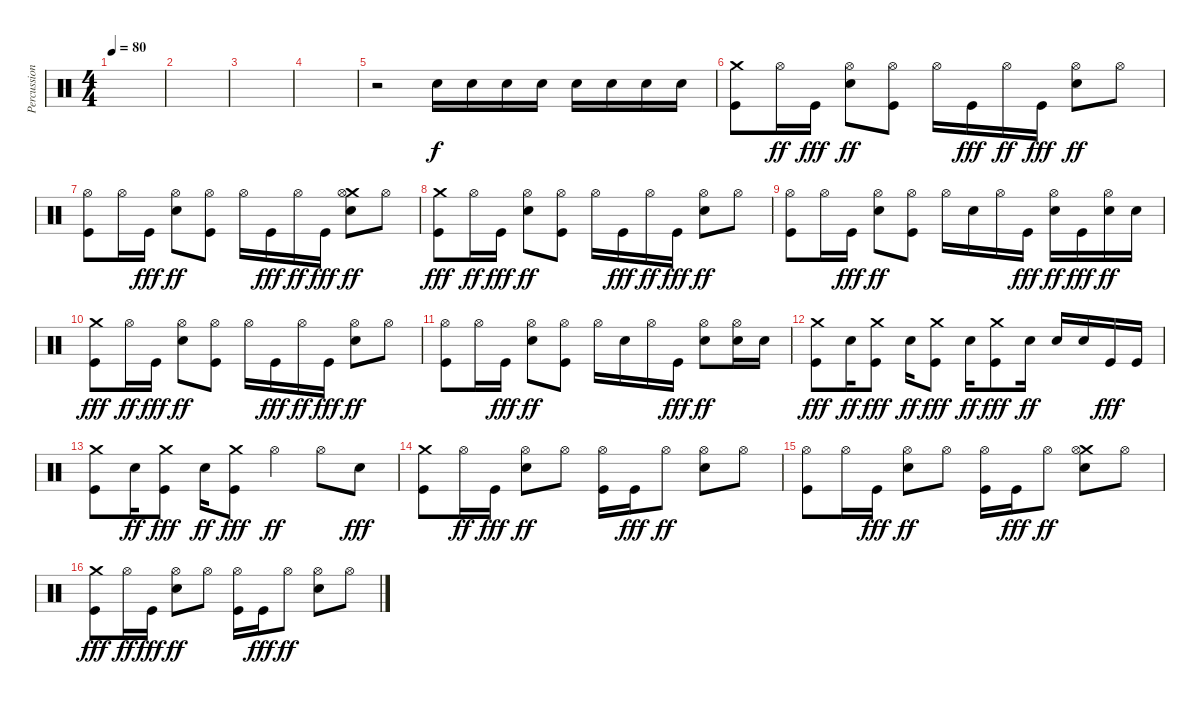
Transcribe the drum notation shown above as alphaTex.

\track ("Percussion" "Percussion") {instrument percussion}
\staff {score}
\articulation defaults
\ts (4 4)
\tempo 80
\clef neutral
\ks c
|
|
|
|
r.2 "Snare (hit) 2".16 "Snare (hit) 2".16 "Snare (hit) 2".16 "Snare (hit) 2".16 "Snare (hit) 2".16 "Snare (hit) 2".16 "Snare (hit) 2".16 "Snare (hit) 2".16 |
("Kick (hit)" "Crash medium (hit)").8 "Hi-Hat (open)".16{dy ff} "Kick (hit)".16{dy fff} ("Snare (hit) 2" "Hi-Hat (open)").8{dy ff} ("Kick (hit)" "Hi-Hat (open)").8 "Hi-Hat (open)".16 "Kick (hit)".16{dy fff} "Hi-Hat (open)".16{dy ff} "Kick (hit)".16{dy fff} ("Snare (hit) 2" "Hi-Hat (open)").8{dy ff} "Hi-Hat (open)".8 |
("Kick (hit)" "Hi-Hat (open)").8 "Hi-Hat (open)".16 "Kick (hit)".16{dy fff} ("Snare (hit) 2" "Hi-Hat (open)").8{dy ff} ("Kick (hit)" "Hi-Hat (open)").8 "Hi-Hat (open)".16 "Kick (hit)".16{dy fff} "Hi-Hat (open)".16{dy ff} "Kick (hit)".16{dy fff} ("Snare (hit) 2" "Crash medium (hit)" "Hi-Hat (open)").8{dy ff} "Hi-Hat (open)".8 |
("Kick (hit)" "Crash medium (hit)").8{dy fff} "Hi-Hat (open)".16{dy ff} "Kick (hit)".16{dy fff} ("Snare (hit) 2" "Hi-Hat (open)").8{dy ff} ("Kick (hit)" "Hi-Hat (open)").8 "Hi-Hat (open)".16 "Kick (hit)".16{dy fff} "Hi-Hat (open)".16{dy ff} "Kick (hit)".16{dy fff} ("Snare (hit) 2" "Hi-Hat (open)").8{dy ff} "Hi-Hat (open)".8 |
("Kick (hit)" "Hi-Hat (open)").8 "Hi-Hat (open)".16 "Kick (hit)".16{dy fff} ("Snare (hit) 2" "Hi-Hat (open)").8{dy ff} ("Kick (hit)" "Hi-Hat (open)").8 "Hi-Hat (open)".16 "Snare (hit) 2".16 "Hi-Hat (open)".16 "Kick (hit)".16{dy fff} ("Snare (hit) 2" "Hi-Hat (open)").16{dy ff} "Kick (hit)".16{dy fff} ("Snare (hit) 2" "Hi-Hat (open)").16{dy ff} "Snare (hit) 2".16 |
("Kick (hit)" "Crash medium (hit)").8{dy fff} "Hi-Hat (open)".16{dy ff} "Kick (hit)".16{dy fff} ("Snare (hit) 2" "Hi-Hat (open)").8{dy ff} ("Kick (hit)" "Hi-Hat (open)").8 "Hi-Hat (open)".16 "Kick (hit)".16{dy fff} "Hi-Hat (open)".16{dy ff} "Kick (hit)".16{dy fff} ("Snare (hit) 2" "Hi-Hat (open)").8{dy ff} "Hi-Hat (open)".8 |
("Kick (hit)" "Hi-Hat (open)").8 "Hi-Hat (open)".16 "Kick (hit)".16{dy fff} ("Snare (hit) 2" "Hi-Hat (open)").8{dy ff} ("Kick (hit)" "Hi-Hat (open)").8 "Hi-Hat (open)".16 "Snare (hit) 2".16 "Hi-Hat (open)".16 "Kick (hit)".16{dy fff} ("Snare (hit) 2" "Hi-Hat (open)").8{dy ff} ("Snare (hit) 2" "Hi-Hat (open)").16 "Snare (hit) 2".16 |
("Kick (hit)" "Crash medium (hit)").8{dy fff} "Snare (hit) 2".16{dy ff} ("Kick (hit)" "Crash medium (hit)").8{dy fff} "Snare (hit) 2".16{dy ff} ("Kick (hit)" "Crash medium (hit)").8{dy fff} "Snare (hit) 2".16{dy ff} ("Kick (hit)" "Crash medium (hit)").8{dy fff} "Snare (hit) 2".16{dy ff} "Snare (hit) 2".16 "Snare (hit) 2".16 "Kick (hit)".16{dy fff} "Kick (hit)".16 |
("Kick (hit)" "Crash medium (hit)").8 "Snare (hit) 2".16{dy ff} ("Kick (hit)" "Crash medium (hit)").8{dy fff} "Snare (hit) 2".16{dy ff} ("Kick (hit)" "Crash medium (hit)").8{dy fff} "Hi-Hat (open)".4{dy ff} "Hi-Hat (open)".8 "Snare (hit) 2".8{dy fff} |
("Kick (hit)" "Crash medium (hit)").8 "Hi-Hat (open)".16{dy ff} "Kick (hit)".16{dy fff} ("Snare (hit) 2" "Hi-Hat (open)").8{dy ff} "Hi-Hat (open)".8 ("Kick (hit)" "Hi-Hat (open)").16 "Kick (hit)".16{dy fff} "Hi-Hat (open)".8{dy ff} ("Snare (hit) 2" "Hi-Hat (open)").8 "Hi-Hat (open)".8 |
("Kick (hit)" "Hi-Hat (open)").8 "Hi-Hat (open)".16 "Kick (hit)".16{dy fff} ("Snare (hit) 2" "Hi-Hat (open)").8{dy ff} "Hi-Hat (open)".8 ("Kick (hit)" "Hi-Hat (open)").16 "Kick (hit)".16{dy fff} "Hi-Hat (open)".8{dy ff} ("Snare (hit) 2" "Crash medium (hit)" "Hi-Hat (open)").8 "Hi-Hat (open)".8 |
("Kick (hit)" "Crash medium (hit)").8{dy fff} "Hi-Hat (open)".16{dy ff} "Kick (hit)".16{dy fff} ("Snare (hit) 2" "Hi-Hat (open)").8{dy ff} "Hi-Hat (open)".8 ("Kick (hit)" "Hi-Hat (open)").16 "Kick (hit)".16{dy fff} "Hi-Hat (open)".8{dy ff} ("Snare (hit) 2" "Hi-Hat (open)").8 "Hi-Hat (open)".8
